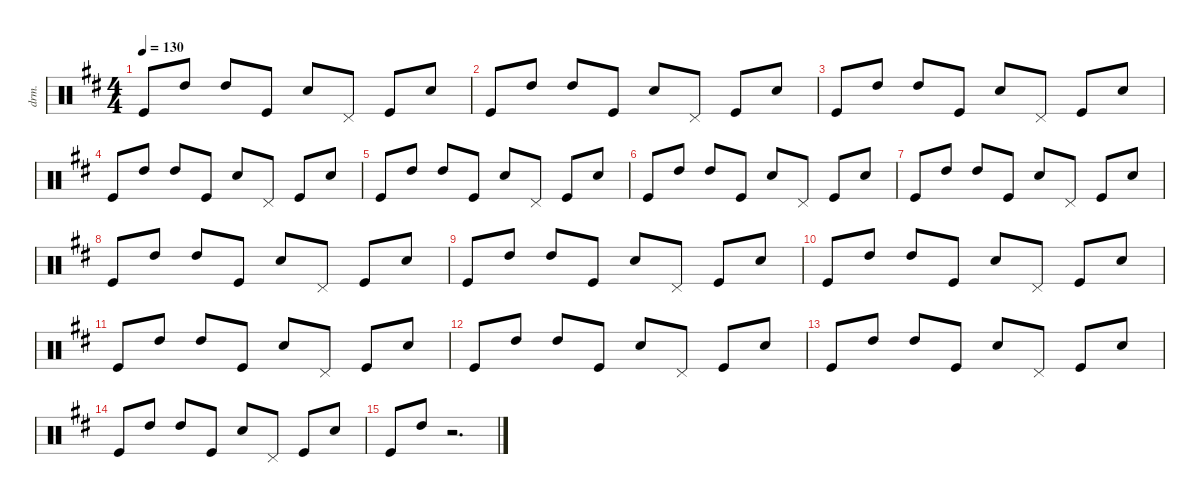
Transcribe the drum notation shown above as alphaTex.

\defaultSystemsLayout 4
\hideDynamics
\bracketExtendMode nobrackets
\otherSystemsTrackNameOrientation horizontal
\track ("Percussion" "drm.") {instrument percussion}
\staff {score}
\articulation defaults
\ts (4 4)
\tempo 130
\clef neutral
\ks d "Kick (hit)"{acc forcenatural}.8{dy f} "High Tom (hit)"{acc forcenatural}.8 "High Tom (hit)"{acc forcenatural}.8 "Kick (hit)"{acc forcenatural}.8 "Snare (hit) 2"{acc forcenatural}.8 "Pedal Hi-Hat (hit)"{acc forcenatural}.8 "Kick (hit)"{acc forcenatural}.8 "Snare (hit) 2"{acc forcenatural}.8
|
"Kick (hit)"{acc forcenatural}.8 "High Tom (hit)"{acc forcenatural}.8 "High Tom (hit)"{acc forcenatural}.8 "Kick (hit)"{acc forcenatural}.8 "Snare (hit) 2"{acc forcenatural}.8 "Pedal Hi-Hat (hit)"{acc forcenatural}.8 "Kick (hit)"{acc forcenatural}.8 "Snare (hit) 2"{acc forcenatural}.8 |
"Kick (hit)"{acc forcenatural}.8 "High Tom (hit)"{acc forcenatural}.8 "High Tom (hit)"{acc forcenatural}.8 "Kick (hit)"{acc forcenatural}.8 "Snare (hit) 2"{acc forcenatural}.8 "Pedal Hi-Hat (hit)"{acc forcenatural}.8 "Kick (hit)"{acc forcenatural}.8 "Snare (hit) 2"{acc forcenatural}.8 |
"Kick (hit)"{acc forcenatural}.8 "High Tom (hit)"{acc forcenatural}.8 "High Tom (hit)"{acc forcenatural}.8 "Kick (hit)"{acc forcenatural}.8 "Snare (hit) 2"{acc forcenatural}.8 "Pedal Hi-Hat (hit)"{acc forcenatural}.8 "Kick (hit)"{acc forcenatural}.8 "Snare (hit) 2"{acc forcenatural}.8 |
"Kick (hit)"{acc forcenatural}.8 "High Tom (hit)"{acc forcenatural}.8 "High Tom (hit)"{acc forcenatural}.8 "Kick (hit)"{acc forcenatural}.8 "Snare (hit) 2"{acc forcenatural}.8 "Pedal Hi-Hat (hit)"{acc forcenatural}.8 "Kick (hit)"{acc forcenatural}.8 "Snare (hit) 2"{acc forcenatural}.8 |
"Kick (hit)"{acc forcenatural}.8 "High Tom (hit)"{acc forcenatural}.8 "High Tom (hit)"{acc forcenatural}.8 "Kick (hit)"{acc forcenatural}.8 "Snare (hit) 2"{acc forcenatural}.8 "Pedal Hi-Hat (hit)"{acc forcenatural}.8 "Kick (hit)"{acc forcenatural}.8 "Snare (hit) 2"{acc forcenatural}.8 |
"Kick (hit)"{acc forcenatural}.8 "High Tom (hit)"{acc forcenatural}.8 "High Tom (hit)"{acc forcenatural}.8 "Kick (hit)"{acc forcenatural}.8 "Snare (hit) 2"{acc forcenatural}.8 "Pedal Hi-Hat (hit)"{acc forcenatural}.8 "Kick (hit)"{acc forcenatural}.8 "Snare (hit) 2"{acc forcenatural}.8 |
"Kick (hit)"{acc forcenatural}.8 "High Tom (hit)"{acc forcenatural}.8 "High Tom (hit)"{acc forcenatural}.8 "Kick (hit)"{acc forcenatural}.8 "Snare (hit) 2"{acc forcenatural}.8 "Pedal Hi-Hat (hit)"{acc forcenatural}.8 "Kick (hit)"{acc forcenatural}.8 "Snare (hit) 2"{acc forcenatural}.8 |
"Kick (hit)"{acc forcenatural}.8 "High Tom (hit)"{acc forcenatural}.8 "High Tom (hit)"{acc forcenatural}.8 "Kick (hit)"{acc forcenatural}.8 "Snare (hit) 2"{acc forcenatural}.8 "Pedal Hi-Hat (hit)"{acc forcenatural}.8 "Kick (hit)"{acc forcenatural}.8 "Snare (hit) 2"{acc forcenatural}.8 |
"Kick (hit)"{acc forcenatural}.8 "High Tom (hit)"{acc forcenatural}.8 "High Tom (hit)"{acc forcenatural}.8 "Kick (hit)"{acc forcenatural}.8 "Snare (hit) 2"{acc forcenatural}.8 "Pedal Hi-Hat (hit)"{acc forcenatural}.8 "Kick (hit)"{acc forcenatural}.8 "Snare (hit) 2"{acc forcenatural}.8 |
"Kick (hit)"{acc forcenatural}.8 "High Tom (hit)"{acc forcenatural}.8 "High Tom (hit)"{acc forcenatural}.8 "Kick (hit)"{acc forcenatural}.8 "Snare (hit) 2"{acc forcenatural}.8 "Pedal Hi-Hat (hit)"{acc forcenatural}.8 "Kick (hit)"{acc forcenatural}.8 "Snare (hit) 2"{acc forcenatural}.8 |
"Kick (hit)"{acc forcenatural}.8 "High Tom (hit)"{acc forcenatural}.8 "High Tom (hit)"{acc forcenatural}.8 "Kick (hit)"{acc forcenatural}.8 "Snare (hit) 2"{acc forcenatural}.8 "Pedal Hi-Hat (hit)"{acc forcenatural}.8 "Kick (hit)"{acc forcenatural}.8 "Snare (hit) 2"{acc forcenatural}.8 |
"Kick (hit)"{acc forcenatural}.8 "High Tom (hit)"{acc forcenatural}.8 "High Tom (hit)"{acc forcenatural}.8 "Kick (hit)"{acc forcenatural}.8 "Snare (hit) 2"{acc forcenatural}.8 "Pedal Hi-Hat (hit)"{acc forcenatural}.8 "Kick (hit)"{acc forcenatural}.8 "Snare (hit) 2"{acc forcenatural}.8 |
"Kick (hit)"{acc forcenatural}.8 "High Tom (hit)"{acc forcenatural}.8 "High Tom (hit)"{acc forcenatural}.8 "Kick (hit)"{acc forcenatural}.8 "Snare (hit) 2"{acc forcenatural}.8 "Pedal Hi-Hat (hit)"{acc forcenatural}.8 "Kick (hit)"{acc forcenatural}.8 "Snare (hit) 2"{acc forcenatural}.8 |
"Kick (hit)"{acc forcenatural}.8 "High Tom (hit)"{acc forcenatural}.8 r.2{d}
